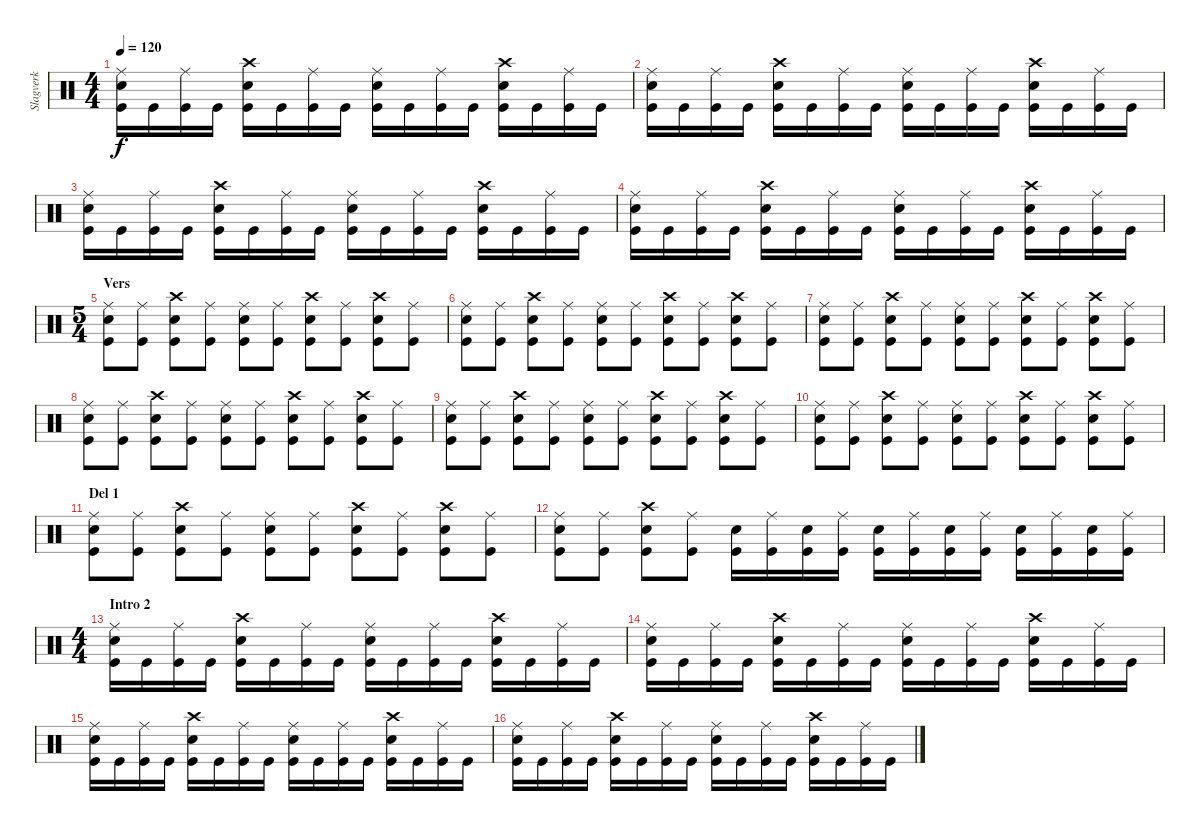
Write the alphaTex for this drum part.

\track ("Slagverk" "Slagverk") {instrument percussion}
\staff {score}
\articulation defaults
\ts (4 4)
\tempo 120
\clef neutral
\ks c
("Kick (hit)" "Snare (hit) 2" "Ride (middle)").16{dy f} "Kick (hit)".16 ("Kick (hit)" "Ride (middle)").16 "Kick (hit)".16 ("Kick (hit)" "Snare (hit) 2" "Crash high (hit)").16 "Kick (hit)".16 ("Kick (hit)" "Ride (middle)").16 "Kick (hit)".16 ("Kick (hit)" "Snare (hit) 2" "Ride (middle)").16 "Kick (hit)".16 ("Kick (hit)" "Ride (middle)").16 "Kick (hit)".16 ("Kick (hit)" "Snare (hit) 2" "Crash high (hit)").16 "Kick (hit)".16 ("Kick (hit)" "Ride (middle)").16 "Kick (hit)".16 |
("Kick (hit)" "Snare (hit) 2" "Ride (middle)").16 "Kick (hit)".16 ("Kick (hit)" "Ride (middle)").16 "Kick (hit)".16 ("Kick (hit)" "Snare (hit) 2" "Crash high (hit)").16 "Kick (hit)".16 ("Kick (hit)" "Ride (middle)").16 "Kick (hit)".16 ("Kick (hit)" "Snare (hit) 2" "Ride (middle)").16 "Kick (hit)".16 ("Kick (hit)" "Ride (middle)").16 "Kick (hit)".16 ("Kick (hit)" "Snare (hit) 2" "Crash high (hit)").16 "Kick (hit)".16 ("Kick (hit)" "Ride (middle)").16 "Kick (hit)".16 |
("Kick (hit)" "Snare (hit) 2" "Ride (middle)").16 "Kick (hit)".16 ("Kick (hit)" "Ride (middle)").16 "Kick (hit)".16 ("Kick (hit)" "Snare (hit) 2" "Crash high (hit)").16 "Kick (hit)".16 ("Kick (hit)" "Ride (middle)").16 "Kick (hit)".16 ("Kick (hit)" "Snare (hit) 2" "Ride (middle)").16 "Kick (hit)".16 ("Kick (hit)" "Ride (middle)").16 "Kick (hit)".16 ("Kick (hit)" "Snare (hit) 2" "Crash high (hit)").16 "Kick (hit)".16 ("Kick (hit)" "Ride (middle)").16 "Kick (hit)".16 |
("Kick (hit)" "Snare (hit) 2" "Ride (middle)").16 "Kick (hit)".16 ("Kick (hit)" "Ride (middle)").16 "Kick (hit)".16 ("Kick (hit)" "Snare (hit) 2" "Crash high (hit)").16 "Kick (hit)".16 ("Kick (hit)" "Ride (middle)").16 "Kick (hit)".16 ("Kick (hit)" "Snare (hit) 2" "Ride (middle)").16 "Kick (hit)".16 ("Kick (hit)" "Ride (middle)").16 "Kick (hit)".16 ("Kick (hit)" "Snare (hit) 2" "Crash high (hit)").16 "Kick (hit)".16 ("Kick (hit)" "Ride (middle)").16 "Kick (hit)".16 |
\ts (5 4)
\section ("" "Vers")
("Kick (hit)" "Snare (hit) 2" "Ride (middle)").8 ("Kick (hit)" "Ride (middle)").8 ("Kick (hit)" "Snare (hit) 2" "Crash high (hit)").8 ("Kick (hit)" "Ride (middle)").8 ("Kick (hit)" "Snare (hit) 2" "Ride (middle)").8 ("Kick (hit)" "Ride (middle)").8 ("Kick (hit)" "Snare (hit) 2" "Crash high (hit)").8 ("Kick (hit)" "Ride (middle)").8 ("Kick (hit)" "Snare (hit) 2" "Crash high (hit)").8 ("Kick (hit)" "Ride (middle)").8 |
("Kick (hit)" "Snare (hit) 2" "Ride (middle)").8 ("Kick (hit)" "Ride (middle)").8 ("Kick (hit)" "Snare (hit) 2" "Crash high (hit)").8 ("Kick (hit)" "Ride (middle)").8 ("Kick (hit)" "Snare (hit) 2" "Ride (middle)").8 ("Kick (hit)" "Ride (middle)").8 ("Kick (hit)" "Snare (hit) 2" "Crash high (hit)").8 ("Kick (hit)" "Ride (middle)").8 ("Kick (hit)" "Snare (hit) 2" "Crash high (hit)").8 ("Kick (hit)" "Ride (middle)").8 |
("Kick (hit)" "Snare (hit) 2" "Ride (middle)").8 ("Kick (hit)" "Ride (middle)").8 ("Kick (hit)" "Snare (hit) 2" "Crash high (hit)").8 ("Kick (hit)" "Ride (middle)").8 ("Kick (hit)" "Snare (hit) 2" "Ride (middle)").8 ("Kick (hit)" "Ride (middle)").8 ("Kick (hit)" "Snare (hit) 2" "Crash high (hit)").8 ("Kick (hit)" "Ride (middle)").8 ("Kick (hit)" "Snare (hit) 2" "Crash high (hit)").8 ("Kick (hit)" "Ride (middle)").8 |
("Kick (hit)" "Snare (hit) 2" "Ride (middle)").8 ("Kick (hit)" "Ride (middle)").8 ("Kick (hit)" "Snare (hit) 2" "Crash high (hit)").8 ("Kick (hit)" "Ride (middle)").8 ("Kick (hit)" "Snare (hit) 2" "Ride (middle)").8 ("Kick (hit)" "Ride (middle)").8 ("Kick (hit)" "Snare (hit) 2" "Crash high (hit)").8 ("Kick (hit)" "Ride (middle)").8 ("Kick (hit)" "Snare (hit) 2" "Crash high (hit)").8 ("Kick (hit)" "Ride (middle)").8 |
("Kick (hit)" "Snare (hit) 2" "Ride (middle)").8 ("Kick (hit)" "Ride (middle)").8 ("Kick (hit)" "Snare (hit) 2" "Crash high (hit)").8 ("Kick (hit)" "Ride (middle)").8 ("Kick (hit)" "Snare (hit) 2" "Ride (middle)").8 ("Kick (hit)" "Ride (middle)").8 ("Kick (hit)" "Snare (hit) 2" "Crash high (hit)").8 ("Kick (hit)" "Ride (middle)").8 ("Kick (hit)" "Snare (hit) 2" "Crash high (hit)").8 ("Kick (hit)" "Ride (middle)").8 |
("Kick (hit)" "Snare (hit) 2" "Ride (middle)").8 ("Kick (hit)" "Ride (middle)").8 ("Kick (hit)" "Snare (hit) 2" "Crash high (hit)").8 ("Kick (hit)" "Ride (middle)").8 ("Kick (hit)" "Snare (hit) 2" "Ride (middle)").8 ("Kick (hit)" "Ride (middle)").8 ("Kick (hit)" "Snare (hit) 2" "Crash high (hit)").8 ("Kick (hit)" "Ride (middle)").8 ("Kick (hit)" "Snare (hit) 2" "Crash high (hit)").8 ("Kick (hit)" "Ride (middle)").8 |
\section ("" "Del 1")
("Kick (hit)" "Snare (hit) 2" "Ride (middle)").8 ("Kick (hit)" "Ride (middle)").8 ("Kick (hit)" "Snare (hit) 2" "Crash high (hit)").8 ("Kick (hit)" "Ride (middle)").8 ("Kick (hit)" "Snare (hit) 2" "Ride (middle)").8 ("Kick (hit)" "Ride (middle)").8 ("Kick (hit)" "Snare (hit) 2" "Crash high (hit)").8 ("Kick (hit)" "Ride (middle)").8 ("Kick (hit)" "Snare (hit) 2" "Crash high (hit)").8 ("Kick (hit)" "Ride (middle)").8 |
("Kick (hit)" "Snare (hit) 2" "Ride (middle)").8 ("Kick (hit)" "Ride (middle)").8 ("Kick (hit)" "Snare (hit) 2" "Crash high (hit)").8 ("Kick (hit)" "Ride (middle)").8 ("Kick (hit)" "Snare (hit) 2").16 ("Kick (hit)" "Ride (middle)").16 ("Kick (hit)" "Snare (hit) 2").16 ("Kick (hit)" "Ride (middle)").16 ("Kick (hit)" "Snare (hit) 2").16 ("Kick (hit)" "Ride (middle)").16 ("Kick (hit)" "Snare (hit) 2").16 ("Kick (hit)" "Ride (middle)").16 ("Kick (hit)" "Snare (hit) 2").16 ("Kick (hit)" "Ride (middle)").16 ("Kick (hit)" "Snare (hit) 2").16 ("Kick (hit)" "Ride (middle)").16 |
\ts (4 4)
\section ("" "Intro 2")
("Kick (hit)" "Snare (hit) 2" "Ride (middle)").16 "Kick (hit)".16 ("Kick (hit)" "Ride (middle)").16 "Kick (hit)".16 ("Kick (hit)" "Snare (hit) 2" "Crash high (hit)").16 "Kick (hit)".16 ("Kick (hit)" "Ride (middle)").16 "Kick (hit)".16 ("Kick (hit)" "Snare (hit) 2" "Ride (middle)").16 "Kick (hit)".16 ("Kick (hit)" "Ride (middle)").16 "Kick (hit)".16 ("Kick (hit)" "Snare (hit) 2" "Crash high (hit)").16 "Kick (hit)".16 ("Kick (hit)" "Ride (middle)").16 "Kick (hit)".16 |
("Kick (hit)" "Snare (hit) 2" "Ride (middle)").16 "Kick (hit)".16 ("Kick (hit)" "Ride (middle)").16 "Kick (hit)".16 ("Kick (hit)" "Snare (hit) 2" "Crash high (hit)").16 "Kick (hit)".16 ("Kick (hit)" "Ride (middle)").16 "Kick (hit)".16 ("Kick (hit)" "Snare (hit) 2" "Ride (middle)").16 "Kick (hit)".16 ("Kick (hit)" "Ride (middle)").16 "Kick (hit)".16 ("Kick (hit)" "Snare (hit) 2" "Crash high (hit)").16 "Kick (hit)".16 ("Kick (hit)" "Ride (middle)").16 "Kick (hit)".16 |
("Kick (hit)" "Snare (hit) 2" "Ride (middle)").16 "Kick (hit)".16 ("Kick (hit)" "Ride (middle)").16 "Kick (hit)".16 ("Kick (hit)" "Snare (hit) 2" "Crash high (hit)").16 "Kick (hit)".16 ("Kick (hit)" "Ride (middle)").16 "Kick (hit)".16 ("Kick (hit)" "Snare (hit) 2" "Ride (middle)").16 "Kick (hit)".16 ("Kick (hit)" "Ride (middle)").16 "Kick (hit)".16 ("Kick (hit)" "Snare (hit) 2" "Crash high (hit)").16 "Kick (hit)".16 ("Kick (hit)" "Ride (middle)").16 "Kick (hit)".16 |
("Kick (hit)" "Snare (hit) 2" "Ride (middle)").16 "Kick (hit)".16 ("Kick (hit)" "Ride (middle)").16 "Kick (hit)".16 ("Kick (hit)" "Snare (hit) 2" "Crash high (hit)").16 "Kick (hit)".16 ("Kick (hit)" "Ride (middle)").16 "Kick (hit)".16 ("Kick (hit)" "Snare (hit) 2" "Ride (middle)").16 "Kick (hit)".16 ("Kick (hit)" "Ride (middle)").16 "Kick (hit)".16 ("Kick (hit)" "Snare (hit) 2" "Crash high (hit)").16 "Kick (hit)".16 ("Kick (hit)" "Ride (middle)").16 "Kick (hit)".16
